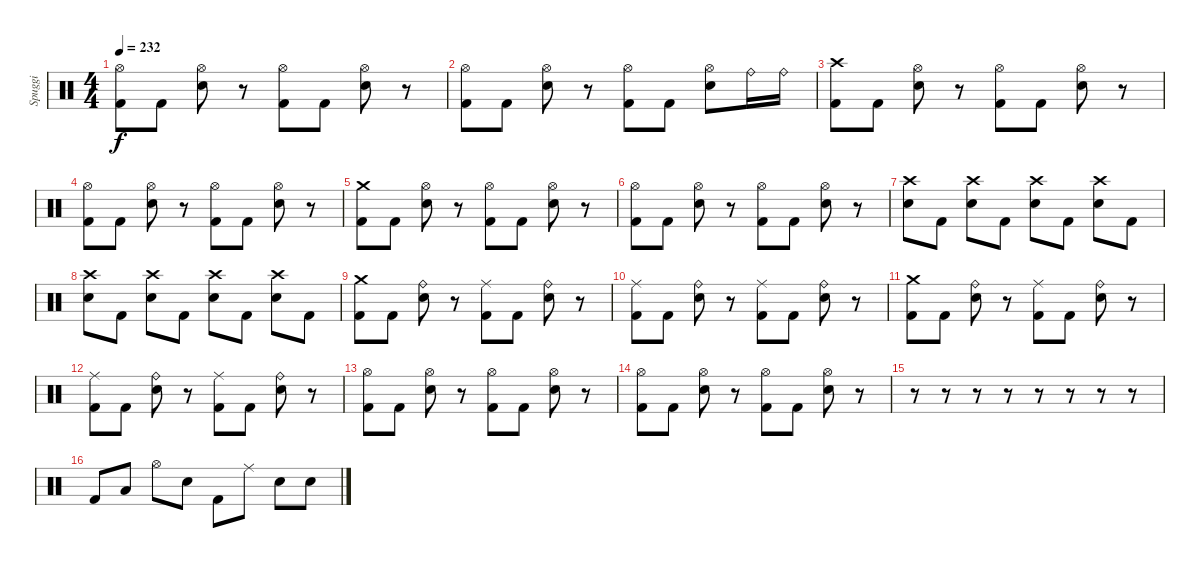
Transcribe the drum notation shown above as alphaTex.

\track ("Spuggi" "Spuggi") {instrument percussion}
\staff {score}
\articulation defaults
\ts (4 4)
\tempo 232
\clef neutral
\ks c
("Hi-Hat (open)" "Kick (hit) 2").8{dy f} "Kick (hit) 2".8 ("Hi-Hat (open)" "Snare (hit) 2").8 r.8 ("Hi-Hat (open)" "Kick (hit) 2").8 "Kick (hit) 2".8 ("Hi-Hat (open)" "Snare (hit) 2").8 r.8 |
("Hi-Hat (open)" "Kick (hit) 2").8 "Kick (hit) 2".8 ("Hi-Hat (open)" "Snare (hit) 2").8 r.8 ("Hi-Hat (open)" "Kick (hit) 2").8 "Kick (hit) 2".8 ("Hi-Hat (open)" "Snare (hit) 2").8 "Ride (bell)".16 "Ride (bell)".16 |
("Crash high (hit)" "Kick (hit) 2").8 "Kick (hit) 2".8 ("Hi-Hat (open)" "Snare (hit) 2").8 r.8 ("Hi-Hat (open)" "Kick (hit) 2").8 "Kick (hit) 2".8 ("Hi-Hat (open)" "Snare (hit) 2").8 r.8 |
("Hi-Hat (open)" "Kick (hit) 2").8 "Kick (hit) 2".8 ("Hi-Hat (open)" "Snare (hit) 2").8 r.8 ("Hi-Hat (open)" "Kick (hit) 2").8 "Kick (hit) 2".8 ("Hi-Hat (open)" "Snare (hit) 2").8 r.8 |
("Crash medium (hit)" "Kick (hit) 2").8 "Kick (hit) 2".8 ("Hi-Hat (open)" "Snare (hit) 2").8 r.8 ("Hi-Hat (open)" "Kick (hit) 2").8 "Kick (hit) 2".8 ("Hi-Hat (open)" "Snare (hit) 2").8 r.8 |
("Hi-Hat (open)" "Kick (hit) 2").8 "Kick (hit) 2".8 ("Hi-Hat (open)" "Snare (hit) 2").8 r.8 ("Hi-Hat (open)" "Kick (hit) 2").8 "Kick (hit) 2".8 ("Hi-Hat (open)" "Snare (hit) 2").8 r.8 |
("Crash high (hit)" "Snare (hit) 2").8 "Kick (hit) 2".8 ("Crash high (hit)" "Snare (hit) 2").8 "Kick (hit) 2".8 ("Crash high (hit)" "Snare (hit) 2").8 "Kick (hit) 2".8 ("Crash high (hit)" "Snare (hit) 2").8 "Kick (hit) 2".8 |
("Crash high (hit)" "Snare (hit) 2").8 "Kick (hit) 2".8 ("Crash high (hit)" "Snare (hit) 2").8 "Kick (hit) 2".8 ("Crash high (hit)" "Snare (hit) 2").8 "Kick (hit) 2".8 ("Crash high (hit)" "Snare (hit) 2").8 "Kick (hit) 2".8 |
("Crash medium (hit)" "Kick (hit) 2").8 "Kick (hit) 2".8 ("Ride (bell)" "Snare (hit) 2").8 r.8 ("Ride (middle)" "Kick (hit) 2").8 "Kick (hit) 2".8 ("Ride (bell)" "Snare (hit) 2").8 r.8 |
("Ride (middle)" "Kick (hit) 2").8 "Kick (hit) 2".8 ("Ride (bell)" "Snare (hit) 2").8 r.8 ("Ride (middle)" "Kick (hit) 2").8 "Kick (hit) 2".8 ("Ride (bell)" "Snare (hit) 2").8 r.8 |
("Crash medium (hit)" "Kick (hit) 2").8 "Kick (hit) 2".8 ("Ride (bell)" "Snare (hit) 2").8 r.8 ("Ride (middle)" "Kick (hit) 2").8 "Kick (hit) 2".8 ("Ride (bell)" "Snare (hit) 2").8 r.8 |
("Ride (middle)" "Kick (hit) 2").8 "Kick (hit) 2".8 ("Ride (bell)" "Snare (hit) 2").8 r.8 ("Ride (middle)" "Kick (hit) 2").8 "Kick (hit) 2".8 ("Ride (bell)" "Snare (hit) 2").8 r.8 |
("Hi-Hat (open)" "Kick (hit) 2").8 "Kick (hit) 2".8 ("Hi-Hat (open)" "Snare (hit) 2").8 r.8 ("Hi-Hat (open)" "Kick (hit) 2").8 "Kick (hit) 2".8 ("Hi-Hat (open)" "Snare (hit) 2").8 r.8 |
("Hi-Hat (open)" "Kick (hit) 2").8 "Kick (hit) 2".8 ("Hi-Hat (open)" "Snare (hit) 2").8 r.8 ("Hi-Hat (open)" "Kick (hit) 2").8 "Kick (hit) 2".8 ("Hi-Hat (open)" "Snare (hit) 2").8 r.8 |
r.8 r.8 r.8 r.8 r.8 r.8 r.8 r.8 |
"Kick (hit) 2".8 "Low Tom (hit)".8 "Hi-Hat (open)".8 "Snare (hit) 2".8 "Kick (hit) 2".8 "Ride (middle)".8 "Snare (hit) 2".8 "Snare (hit) 2".8
